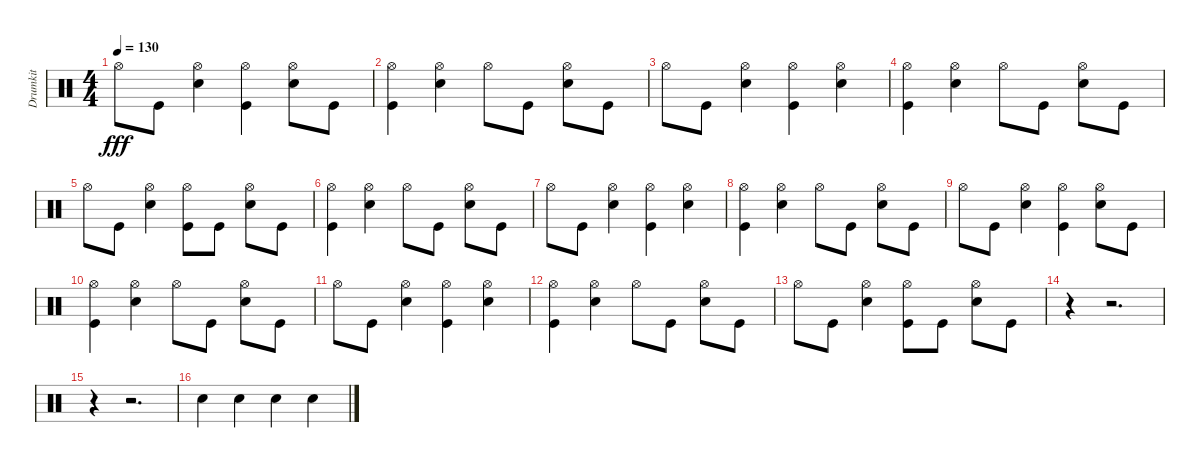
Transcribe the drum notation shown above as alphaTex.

\track ("Drumkit" "Drumkit") {instrument percussion}
\staff {score}
\articulation defaults
\ts (4 4)
\tempo 130
\clef neutral
\ks c "Hi-Hat (open)".8{dy fff} "Kick (hit)".8
("Snare (hit) 2" "Hi-Hat (open)").4 ("Hi-Hat (open)" "Kick (hit)").4 ("Hi-Hat (open)" "Snare (hit) 2").8 "Kick (hit)".8 |
("Kick (hit)" "Hi-Hat (open)").4 ("Snare (hit) 2" "Hi-Hat (open)").4 "Hi-Hat (open)".8 "Kick (hit)".8 ("Hi-Hat (open)" "Snare (hit) 2").8 "Kick (hit)".8 |
"Hi-Hat (open)".8 "Kick (hit)".8 ("Snare (hit) 2" "Hi-Hat (open)").4 ("Hi-Hat (open)" "Kick (hit)").4 ("Hi-Hat (open)" "Snare (hit) 2").4 |
("Kick (hit)" "Hi-Hat (open)").4 ("Snare (hit) 2" "Hi-Hat (open)").4 "Hi-Hat (open)".8 "Kick (hit)".8 ("Hi-Hat (open)" "Snare (hit) 2").8 "Kick (hit)".8 |
"Hi-Hat (open)".8 "Kick (hit)".8 ("Snare (hit) 2" "Hi-Hat (open)").4 ("Hi-Hat (open)" "Kick (hit)").8 "Kick (hit)".8 ("Hi-Hat (open)" "Snare (hit) 2").8 "Kick (hit)".8 |
("Kick (hit)" "Hi-Hat (open)").4 ("Snare (hit) 2" "Hi-Hat (open)").4 "Hi-Hat (open)".8 "Kick (hit)".8 ("Hi-Hat (open)" "Snare (hit) 2").8 "Kick (hit)".8 |
"Hi-Hat (open)".8 "Kick (hit)".8 ("Snare (hit) 2" "Hi-Hat (open)").4 ("Hi-Hat (open)" "Kick (hit)").4 ("Hi-Hat (open)" "Snare (hit) 2").4 |
("Kick (hit)" "Hi-Hat (open)").4 ("Snare (hit) 2" "Hi-Hat (open)").4 "Hi-Hat (open)".8 "Kick (hit)".8 ("Hi-Hat (open)" "Snare (hit) 2").8 "Kick (hit)".8 |
"Hi-Hat (open)".8 "Kick (hit)".8 ("Snare (hit) 2" "Hi-Hat (open)").4 ("Hi-Hat (open)" "Kick (hit)").4 ("Hi-Hat (open)" "Snare (hit) 2").8 "Kick (hit)".8 |
("Kick (hit)" "Hi-Hat (open)").4 ("Snare (hit) 2" "Hi-Hat (open)").4 "Hi-Hat (open)".8 "Kick (hit)".8 ("Hi-Hat (open)" "Snare (hit) 2").8 "Kick (hit)".8 |
"Hi-Hat (open)".8 "Kick (hit)".8 ("Snare (hit) 2" "Hi-Hat (open)").4 ("Hi-Hat (open)" "Kick (hit)").4 ("Hi-Hat (open)" "Snare (hit) 2").4 |
("Kick (hit)" "Hi-Hat (open)").4 ("Snare (hit) 2" "Hi-Hat (open)").4 "Hi-Hat (open)".8 "Kick (hit)".8 ("Hi-Hat (open)" "Snare (hit) 2").8 "Kick (hit)".8 |
"Hi-Hat (open)".8 "Kick (hit)".8 ("Snare (hit) 2" "Hi-Hat (open)").4 ("Hi-Hat (open)" "Kick (hit)").8 "Kick (hit)".8 ("Hi-Hat (open)" "Snare (hit) 2").8 "Kick (hit)".8 |
r.4 r.2{d} |
r.4 r.2{d} |
"Snare (hit) 2".4 "Snare (hit) 2".4 "Snare (hit) 2".4 "Snare (hit) 2".4
